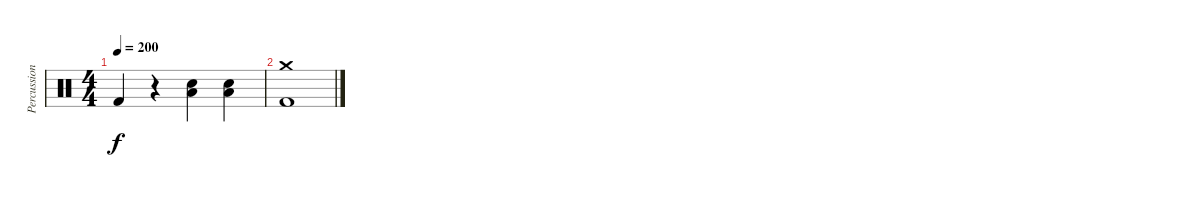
\track ("Percussion" "Percussion") {instrument percussion}
\staff {score}
\articulation defaults
\ts (4 4)
\tempo 200
\clef neutral
\ks c "Kick (hit) 2".4{dy f}
r.4 ("Electric Snare (hit)" "Low Floor Tom (hit)").4 ("Electric Snare (hit)" "Low Floor Tom (hit)").4 |
("Crash medium (hit)" "Kick (hit) 2").1
